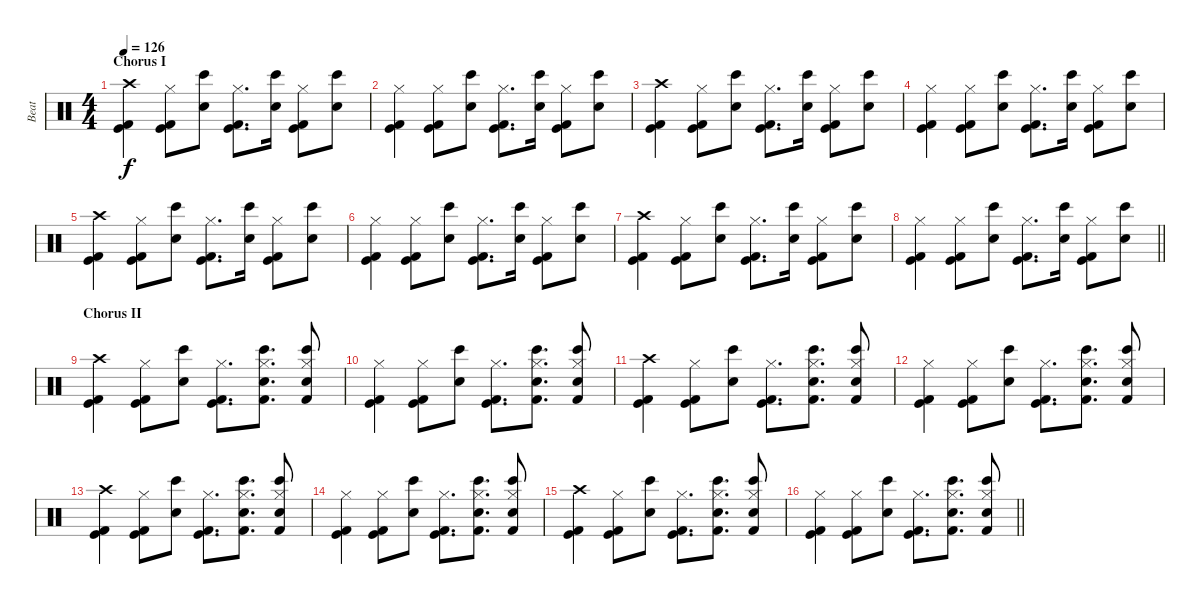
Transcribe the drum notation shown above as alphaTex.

\track ("Beat" "Beat") {instrument percussion}
\staff {score}
\articulation defaults
\ts (4 4)
\section ("" "Chorus I")
\tempo 126
\clef neutral
\ks c
("Crash high (hit)" "Kick (hit)" "Kick (hit) 2").4{dy f} ("Hi-Hat (closed)" "Kick (hit)" "Kick (hit) 2").8 ("Bongo High (hit)" "Snare (hit) 2").8 ("Hi-Hat (closed)" "Kick (hit)" "Kick (hit) 2").8{d} ("Bongo High (hit)" "Snare (hit) 2").16 ("Hi-Hat (closed)" "Kick (hit)" "Kick (hit) 2").8 ("Bongo High (hit)" "Snare (hit) 2").8 |
("Hi-Hat (closed)" "Kick (hit)" "Kick (hit) 2").4 ("Hi-Hat (closed)" "Kick (hit)" "Kick (hit) 2").8 ("Bongo High (hit)" "Snare (hit) 2").8 ("Hi-Hat (closed)" "Kick (hit)" "Kick (hit) 2").8{d} ("Bongo High (hit)" "Snare (hit) 2").16 ("Hi-Hat (closed)" "Kick (hit)" "Kick (hit) 2").8 ("Bongo High (hit)" "Snare (hit) 2").8 |
("Crash high (hit)" "Kick (hit)" "Kick (hit) 2").4 ("Hi-Hat (closed)" "Kick (hit)" "Kick (hit) 2").8 ("Bongo High (hit)" "Snare (hit) 2").8 ("Hi-Hat (closed)" "Kick (hit)" "Kick (hit) 2").8{d} ("Bongo High (hit)" "Snare (hit) 2").16 ("Hi-Hat (closed)" "Kick (hit)" "Kick (hit) 2").8 ("Bongo High (hit)" "Snare (hit) 2").8 |
("Hi-Hat (closed)" "Kick (hit)" "Kick (hit) 2").4 ("Hi-Hat (closed)" "Kick (hit)" "Kick (hit) 2").8 ("Bongo High (hit)" "Snare (hit) 2").8 ("Hi-Hat (closed)" "Kick (hit)" "Kick (hit) 2").8{d} ("Bongo High (hit)" "Snare (hit) 2").16 ("Hi-Hat (closed)" "Kick (hit)" "Kick (hit) 2").8 ("Bongo High (hit)" "Snare (hit) 2").8 |
("Crash high (hit)" "Kick (hit)" "Kick (hit) 2").4 ("Hi-Hat (closed)" "Kick (hit)" "Kick (hit) 2").8 ("Bongo High (hit)" "Snare (hit) 2").8 ("Hi-Hat (closed)" "Kick (hit)" "Kick (hit) 2").8{d} ("Bongo High (hit)" "Snare (hit) 2").16 ("Hi-Hat (closed)" "Kick (hit)" "Kick (hit) 2").8 ("Bongo High (hit)" "Snare (hit) 2").8 |
("Hi-Hat (closed)" "Kick (hit)" "Kick (hit) 2").4 ("Hi-Hat (closed)" "Kick (hit)" "Kick (hit) 2").8 ("Bongo High (hit)" "Snare (hit) 2").8 ("Hi-Hat (closed)" "Kick (hit)" "Kick (hit) 2").8{d} ("Bongo High (hit)" "Snare (hit) 2").16 ("Hi-Hat (closed)" "Kick (hit)" "Kick (hit) 2").8 ("Bongo High (hit)" "Snare (hit) 2").8 |
("Crash high (hit)" "Kick (hit)" "Kick (hit) 2").4 ("Hi-Hat (closed)" "Kick (hit)" "Kick (hit) 2").8 ("Bongo High (hit)" "Snare (hit) 2").8 ("Hi-Hat (closed)" "Kick (hit)" "Kick (hit) 2").8{d} ("Bongo High (hit)" "Snare (hit) 2").16 ("Hi-Hat (closed)" "Kick (hit)" "Kick (hit) 2").8 ("Bongo High (hit)" "Snare (hit) 2").8 |
\barLineRight lightlight
("Hi-Hat (closed)" "Kick (hit)" "Kick (hit) 2").4 ("Hi-Hat (closed)" "Kick (hit)" "Kick (hit) 2").8 ("Bongo High (hit)" "Snare (hit) 2").8 ("Hi-Hat (closed)" "Kick (hit)" "Kick (hit) 2").8{d} ("Bongo High (hit)" "Snare (hit) 2").16 ("Hi-Hat (closed)" "Kick (hit)" "Kick (hit) 2").8 ("Bongo High (hit)" "Snare (hit) 2").8 |
\section ("" "Chorus II")
("Crash high (hit)" "Kick (hit)" "Kick (hit) 2").4 ("Hi-Hat (closed)" "Kick (hit)" "Kick (hit) 2").8 ("Bongo High (hit)" "Snare (hit) 2").8 ("Hi-Hat (closed)" "Kick (hit)" "Kick (hit) 2").8{d} ("Hi-Hat (closed)" "Bongo High (hit)" "Snare (hit) 2" "Kick (hit) 2").8{d} ("Hi-Hat (closed)" "Bongo High (hit)" "Snare (hit) 2" "Kick (hit) 2").8 |
("Hi-Hat (closed)" "Kick (hit)" "Kick (hit) 2").4 ("Hi-Hat (closed)" "Kick (hit)" "Kick (hit) 2").8 ("Bongo High (hit)" "Snare (hit) 2").8 ("Hi-Hat (closed)" "Kick (hit)" "Kick (hit) 2").8{d} ("Hi-Hat (closed)" "Bongo High (hit)" "Snare (hit) 2" "Kick (hit) 2").8{d} ("Hi-Hat (closed)" "Bongo High (hit)" "Snare (hit) 2" "Kick (hit) 2").8 |
("Crash high (hit)" "Kick (hit)" "Kick (hit) 2").4 ("Hi-Hat (closed)" "Kick (hit)" "Kick (hit) 2").8 ("Bongo High (hit)" "Snare (hit) 2").8 ("Hi-Hat (closed)" "Kick (hit)" "Kick (hit) 2").8{d} ("Hi-Hat (closed)" "Bongo High (hit)" "Snare (hit) 2" "Kick (hit) 2").8{d} ("Hi-Hat (closed)" "Bongo High (hit)" "Snare (hit) 2" "Kick (hit) 2").8 |
("Hi-Hat (closed)" "Kick (hit)" "Kick (hit) 2").4 ("Hi-Hat (closed)" "Kick (hit)" "Kick (hit) 2").8 ("Bongo High (hit)" "Snare (hit) 2").8 ("Hi-Hat (closed)" "Kick (hit)" "Kick (hit) 2").8{d} ("Hi-Hat (closed)" "Bongo High (hit)" "Snare (hit) 2" "Kick (hit) 2").8{d} ("Hi-Hat (closed)" "Bongo High (hit)" "Snare (hit) 2" "Kick (hit) 2").8 |
("Crash high (hit)" "Kick (hit)" "Kick (hit) 2").4 ("Hi-Hat (closed)" "Kick (hit)" "Kick (hit) 2").8 ("Bongo High (hit)" "Snare (hit) 2").8 ("Hi-Hat (closed)" "Kick (hit)" "Kick (hit) 2").8{d} ("Hi-Hat (closed)" "Bongo High (hit)" "Snare (hit) 2" "Kick (hit) 2").8{d} ("Hi-Hat (closed)" "Bongo High (hit)" "Snare (hit) 2" "Kick (hit) 2").8 |
("Hi-Hat (closed)" "Kick (hit)" "Kick (hit) 2").4 ("Hi-Hat (closed)" "Kick (hit)" "Kick (hit) 2").8 ("Bongo High (hit)" "Snare (hit) 2").8 ("Hi-Hat (closed)" "Kick (hit)" "Kick (hit) 2").8{d} ("Hi-Hat (closed)" "Bongo High (hit)" "Snare (hit) 2" "Kick (hit) 2").8{d} ("Hi-Hat (closed)" "Bongo High (hit)" "Snare (hit) 2" "Kick (hit) 2").8 |
("Crash high (hit)" "Kick (hit)" "Kick (hit) 2").4 ("Hi-Hat (closed)" "Kick (hit)" "Kick (hit) 2").8 ("Bongo High (hit)" "Snare (hit) 2").8 ("Hi-Hat (closed)" "Kick (hit)" "Kick (hit) 2").8{d} ("Hi-Hat (closed)" "Bongo High (hit)" "Snare (hit) 2" "Kick (hit) 2").8{d} ("Hi-Hat (closed)" "Bongo High (hit)" "Snare (hit) 2" "Kick (hit) 2").8 |
\barLineRight lightlight
("Hi-Hat (closed)" "Kick (hit)" "Kick (hit) 2").4 ("Hi-Hat (closed)" "Kick (hit)" "Kick (hit) 2").8 ("Bongo High (hit)" "Snare (hit) 2").8 ("Hi-Hat (closed)" "Kick (hit)" "Kick (hit) 2").8{d} ("Hi-Hat (closed)" "Bongo High (hit)" "Snare (hit) 2" "Kick (hit) 2").8{d} ("Hi-Hat (closed)" "Bongo High (hit)" "Snare (hit) 2" "Kick (hit) 2").8
